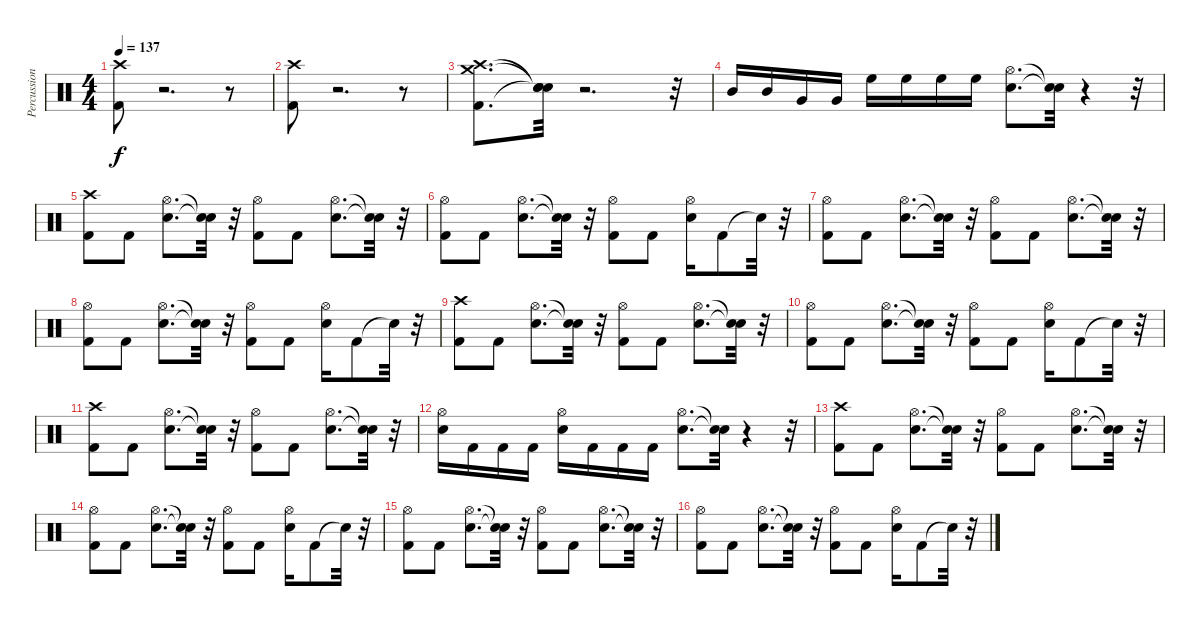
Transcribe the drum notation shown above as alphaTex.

\track ("Percussion" "Percussion") {instrument percussion}
\staff {score}
\articulation defaults
\ts (4 4)
\tempo 137
\clef neutral
\ks c
("Kick (hit) 2" "Crash high (hit)").8{dy f} r.2{d} r.8 |
("Kick (hit) 2" "Crash high (hit)").8 r.2{d} r.8 |
("Kick (hit) 2" "Crash high (hit)" "Crash medium (hit)").8{d} ("Snare (hit)"{t} "Snare (hit)"{t} "Snare (hit)"{t}).32 r.2{d} r.32 |
"Mid Tom (hit)".16 "Mid Tom (hit)".16 "Very Low Tom (hit)".16 "Very Low Tom (hit)".16 "High Floor Tom (hit)".16 "High Floor Tom (hit)".16 "High Floor Tom (hit)".16 "High Floor Tom (hit)".16 ("Snare (hit) 2" "Hi-Hat (open)").8{d} ("Snare (hit)"{t} "Snare (hit)"{t}).32 r.4 r.32 |
("Kick (hit) 2" "Crash high (hit)").8 "Kick (hit) 2".8 ("Snare (hit) 2" "Hi-Hat (open)").8{d} ("Snare (hit)"{t} "Snare (hit)"{t}).32 r.32 ("Kick (hit) 2" "Hi-Hat (open)").8 "Kick (hit) 2".8 ("Hi-Hat (open)" "Snare (hit) 2").8{d} ("Snare (hit)"{t} "Snare (hit)"{t}).32 r.32 |
("Kick (hit) 2" "Hi-Hat (open)").8 "Kick (hit) 2".8 ("Snare (hit) 2" "Hi-Hat (open)").8{d} ("Snare (hit)"{t} "Snare (hit)"{t}).32 r.32 ("Kick (hit) 2" "Hi-Hat (open)").8 "Kick (hit) 2".8 ("Hi-Hat (open)" "Snare (hit) 2").16 "Kick (hit) 2".8 "Snare (hit)"{t}.32 r.32 |
("Kick (hit) 2" "Hi-Hat (open)").8 "Kick (hit) 2".8 ("Snare (hit) 2" "Hi-Hat (open)").8{d} ("Snare (hit)"{t} "Snare (hit)"{t}).32 r.32 ("Kick (hit) 2" "Hi-Hat (open)").8 "Kick (hit) 2".8 ("Hi-Hat (open)" "Snare (hit) 2").8{d} ("Snare (hit)"{t} "Snare (hit)"{t}).32 r.32 |
("Kick (hit) 2" "Hi-Hat (open)").8 "Kick (hit) 2".8 ("Snare (hit) 2" "Hi-Hat (open)").8{d} ("Snare (hit)"{t} "Snare (hit)"{t}).32 r.32 ("Kick (hit) 2" "Hi-Hat (open)").8 "Kick (hit) 2".8 ("Hi-Hat (open)" "Snare (hit) 2").16 "Kick (hit) 2".8 "Snare (hit)"{t}.32 r.32 |
("Kick (hit) 2" "Crash high (hit)").8 "Kick (hit) 2".8 ("Snare (hit) 2" "Hi-Hat (open)").8{d} ("Snare (hit)"{t} "Snare (hit)"{t}).32 r.32 ("Kick (hit) 2" "Hi-Hat (open)").8 "Kick (hit) 2".8 ("Hi-Hat (open)" "Snare (hit) 2").8{d} ("Snare (hit)"{t} "Snare (hit)"{t}).32 r.32 |
("Kick (hit) 2" "Hi-Hat (open)").8 "Kick (hit) 2".8 ("Snare (hit) 2" "Hi-Hat (open)").8{d} ("Snare (hit)"{t} "Snare (hit)"{t}).32 r.32 ("Kick (hit) 2" "Hi-Hat (open)").8 "Kick (hit) 2".8 ("Hi-Hat (open)" "Snare (hit) 2").16 "Kick (hit) 2".8 "Snare (hit)"{t}.32 r.32 |
("Kick (hit) 2" "Crash high (hit)").8 "Kick (hit) 2".8 ("Snare (hit) 2" "Hi-Hat (open)").8{d} ("Snare (hit)"{t} "Snare (hit)"{t}).32 r.32 ("Kick (hit) 2" "Hi-Hat (open)").8 "Kick (hit) 2".8 ("Hi-Hat (open)" "Snare (hit) 2").8{d} ("Snare (hit)"{t} "Snare (hit)"{t}).32 r.32 |
("Snare (hit) 2" "Hi-Hat (open)").16 "Kick (hit) 2".16 "Kick (hit) 2".16 "Kick (hit) 2".16 ("Snare (hit) 2" "Hi-Hat (open)").16 "Kick (hit) 2".16 "Kick (hit) 2".16 "Kick (hit) 2".16 ("Snare (hit) 2" "Hi-Hat (open)").8{d} ("Snare (hit)"{t} "Snare (hit)"{t}).32 r.4 r.32 |
("Kick (hit) 2" "Crash high (hit)").8 "Kick (hit) 2".8 ("Snare (hit) 2" "Hi-Hat (open)").8{d} ("Snare (hit)"{t} "Snare (hit)"{t}).32 r.32 ("Kick (hit) 2" "Hi-Hat (open)").8 "Kick (hit) 2".8 ("Hi-Hat (open)" "Snare (hit) 2").8{d} ("Snare (hit)"{t} "Snare (hit)"{t}).32 r.32 |
("Kick (hit) 2" "Hi-Hat (open)").8 "Kick (hit) 2".8 ("Snare (hit) 2" "Hi-Hat (open)").8{d} ("Snare (hit)"{t} "Snare (hit)"{t}).32 r.32 ("Kick (hit) 2" "Hi-Hat (open)").8 "Kick (hit) 2".8 ("Hi-Hat (open)" "Snare (hit) 2").16 "Kick (hit) 2".8 "Snare (hit)"{t}.32 r.32 |
("Kick (hit) 2" "Hi-Hat (open)").8 "Kick (hit) 2".8 ("Snare (hit) 2" "Hi-Hat (open)").8{d} ("Snare (hit)"{t} "Snare (hit)"{t}).32 r.32 ("Kick (hit) 2" "Hi-Hat (open)").8 "Kick (hit) 2".8 ("Hi-Hat (open)" "Snare (hit) 2").8{d} ("Snare (hit)"{t} "Snare (hit)"{t}).32 r.32 |
("Kick (hit) 2" "Hi-Hat (open)").8 "Kick (hit) 2".8 ("Snare (hit) 2" "Hi-Hat (open)").8{d} ("Snare (hit)"{t} "Snare (hit)"{t}).32 r.32 ("Kick (hit) 2" "Hi-Hat (open)").8 "Kick (hit) 2".8 ("Hi-Hat (open)" "Snare (hit) 2").16 "Kick (hit) 2".8 "Snare (hit)"{t}.32 r.32
